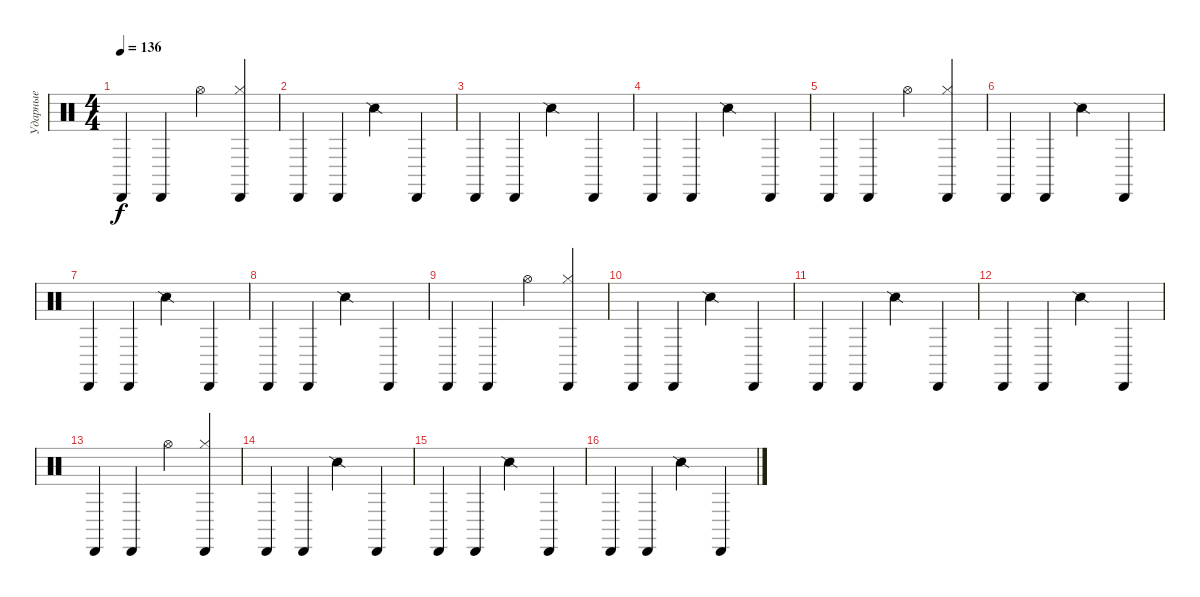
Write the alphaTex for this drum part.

\track ("Ударные" "Ударные") {instrument percussion}
\staff {score}
\articulation defaults
\ts (4 4)
\tempo 136
\clef neutral
\ks c "Cabasa (hit)".4{dy f} "Cabasa (hit)".4 "Hi-Hat (open)".4
("Hi-Hat (closed)" "Cabasa (hit)").4 |
"Cabasa (hit)".4 "Cabasa (hit)".4 "Snare (side stick) 2".4 "Cabasa (hit)".4 |
"Cabasa (hit)".4 "Cabasa (hit)".4 "Snare (side stick) 2".4 "Cabasa (hit)".4 |
"Cabasa (hit)".4 "Cabasa (hit)".4 "Snare (side stick) 2".4 "Cabasa (hit)".4 |
"Cabasa (hit)".4 "Cabasa (hit)".4 "Hi-Hat (open)".4 ("Hi-Hat (closed)" "Cabasa (hit)").4 |
"Cabasa (hit)".4 "Cabasa (hit)".4 "Snare (side stick) 2".4 "Cabasa (hit)".4 |
"Cabasa (hit)".4 "Cabasa (hit)".4 "Snare (side stick) 2".4 "Cabasa (hit)".4 |
"Cabasa (hit)".4 "Cabasa (hit)".4 "Snare (side stick) 2".4 "Cabasa (hit)".4 |
"Cabasa (hit)".4 "Cabasa (hit)".4 "Hi-Hat (open)".4 ("Hi-Hat (closed)" "Cabasa (hit)").4 |
"Cabasa (hit)".4 "Cabasa (hit)".4 "Snare (side stick) 2".4 "Cabasa (hit)".4 |
"Cabasa (hit)".4 "Cabasa (hit)".4 "Snare (side stick) 2".4 "Cabasa (hit)".4 |
"Cabasa (hit)".4 "Cabasa (hit)".4 "Snare (side stick) 2".4 "Cabasa (hit)".4 |
"Cabasa (hit)".4 "Cabasa (hit)".4 "Hi-Hat (open)".4 ("Hi-Hat (closed)" "Cabasa (hit)").4 |
"Cabasa (hit)".4 "Cabasa (hit)".4 "Snare (side stick) 2".4 "Cabasa (hit)".4 |
"Cabasa (hit)".4 "Cabasa (hit)".4 "Snare (side stick) 2".4 "Cabasa (hit)".4 |
"Cabasa (hit)".4 "Cabasa (hit)".4 "Snare (side stick) 2".4 "Cabasa (hit)".4
